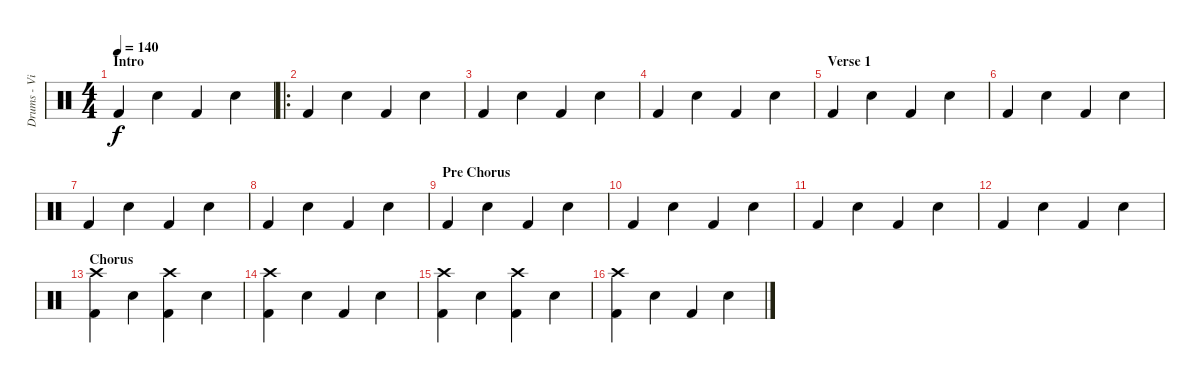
\track ("Drums - Vicko" "Drums - Vi") {instrument percussion}
\staff {score}
\articulation defaults
\ts (4 4)
\section ("" "Intro")
\tempo 140
\clef neutral
\ks c "Kick (hit) 2".4{dy f} "Snare (hit) 2".4 "Kick (hit) 2".4 "Snare (hit) 2".4
|
\ro "Kick (hit) 2".4 "Snare (hit) 2".4 "Kick (hit) 2".4 "Snare (hit) 2".4
|
"Kick (hit) 2".4 "Snare (hit) 2".4 "Kick (hit) 2".4 "Snare (hit) 2".4 |
"Kick (hit) 2".4 "Snare (hit) 2".4 "Kick (hit) 2".4 "Snare (hit) 2".4 |
\section ("" "Verse 1")
"Kick (hit) 2".4 "Snare (hit) 2".4 "Kick (hit) 2".4 "Snare (hit) 2".4 |
"Kick (hit) 2".4 "Snare (hit) 2".4 "Kick (hit) 2".4 "Snare (hit) 2".4 |
"Kick (hit) 2".4 "Snare (hit) 2".4 "Kick (hit) 2".4 "Snare (hit) 2".4 |
"Kick (hit) 2".4 "Snare (hit) 2".4 "Kick (hit) 2".4 "Snare (hit) 2".4 |
\section ("" "Pre Chorus")
"Kick (hit) 2".4 "Snare (hit) 2".4 "Kick (hit) 2".4 "Snare (hit) 2".4 |
"Kick (hit) 2".4 "Snare (hit) 2".4 "Kick (hit) 2".4 "Snare (hit) 2".4 |
"Kick (hit) 2".4 "Snare (hit) 2".4 "Kick (hit) 2".4 "Snare (hit) 2".4 |
"Kick (hit) 2".4 "Snare (hit) 2".4 "Kick (hit) 2".4 "Snare (hit) 2".4 |
\section ("" "Chorus")
("Kick (hit) 2" "Crash high (hit)").4 "Snare (hit) 2".4 ("Kick (hit) 2" "Crash high (hit)").4 "Snare (hit) 2".4 |
("Kick (hit) 2" "Crash high (hit)").4 "Snare (hit) 2".4 "Kick (hit) 2".4 "Snare (hit) 2".4 |
("Kick (hit) 2" "Crash high (hit)").4 "Snare (hit) 2".4 ("Kick (hit) 2" "Crash high (hit)").4 "Snare (hit) 2".4 |
("Kick (hit) 2" "Crash high (hit)").4 "Snare (hit) 2".4 "Kick (hit) 2".4 "Snare (hit) 2".4
